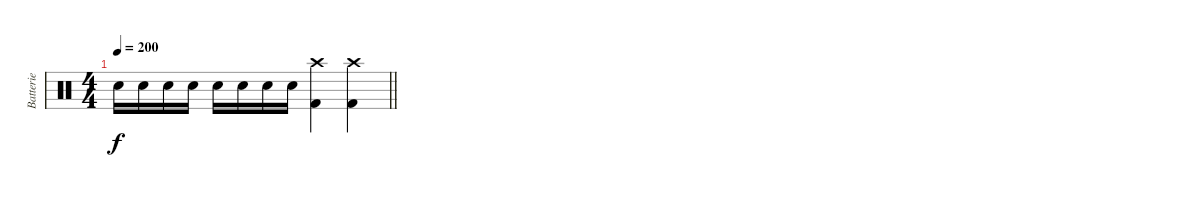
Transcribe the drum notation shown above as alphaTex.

\track ("Batterie" "Batterie") {instrument percussion}
\staff {score}
\articulation defaults
\ts (4 4)
\tempo 200
\clef neutral
\barLineRight lightlight
\ks c "Electric Snare (hit)".16{dy f} "Electric Snare (hit)".16 "Electric Snare (hit)".16 "Electric Snare (hit)".16 "Electric Snare (hit)".16 "Electric Snare (hit)".16 "Electric Snare (hit)".16 "Electric Snare (hit)".16
("Crash high (hit)" "Kick (hit) 2").4 ("Crash high (hit)" "Kick (hit) 2").4
